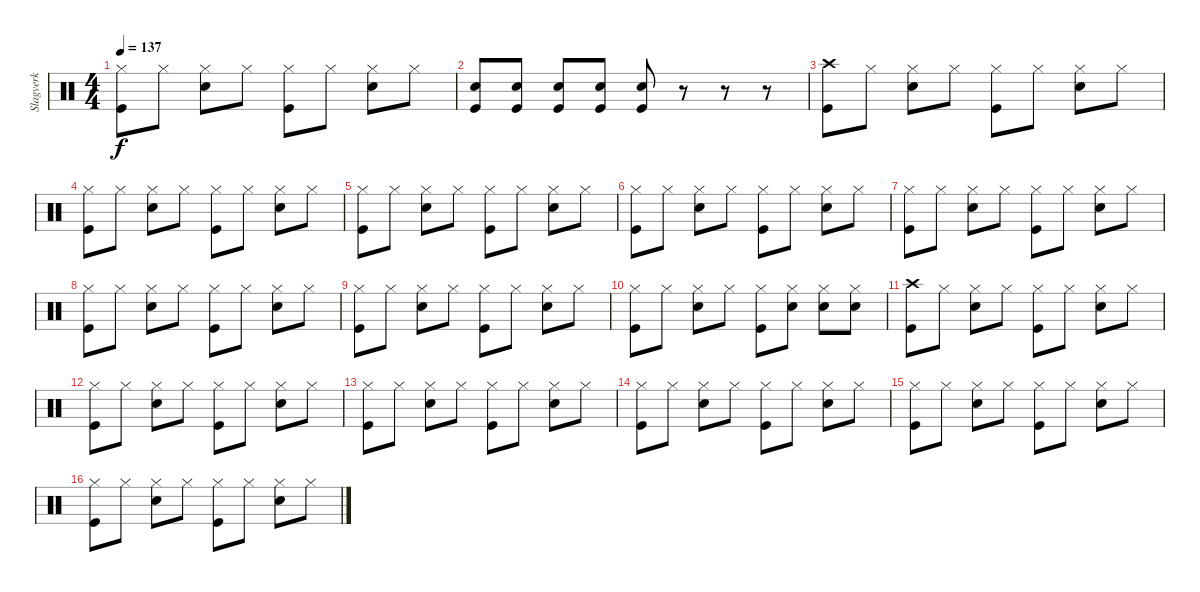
\track ("Slagverk" "Slagverk") {instrument percussion}
\staff {score}
\articulation defaults
\ts (4 4)
\tempo 137
\clef neutral
\ks c
("Hi-Hat (closed)" "Kick (hit)").8{dy f} "Hi-Hat (closed)".8 ("Hi-Hat (closed)" "Snare (hit) 2").8 "Hi-Hat (closed)".8 ("Hi-Hat (closed)" "Kick (hit)").8 "Hi-Hat (closed)".8 ("Hi-Hat (closed)" "Snare (hit) 2").8 "Hi-Hat (closed)".8 |
("Kick (hit)" "Snare (hit) 2").8 ("Kick (hit)" "Snare (hit) 2").8 ("Kick (hit)" "Snare (hit) 2").8 ("Kick (hit)" "Snare (hit) 2").8 ("Kick (hit)" "Snare (hit) 2").8 r.8 r.8 r.8 |
("Crash high (hit)" "Kick (hit)").8 "Hi-Hat (closed)".8 ("Hi-Hat (closed)" "Snare (hit) 2").8 "Hi-Hat (closed)".8 ("Hi-Hat (closed)" "Kick (hit)").8 "Hi-Hat (closed)".8 ("Hi-Hat (closed)" "Snare (hit) 2").8 "Hi-Hat (closed)".8 |
("Hi-Hat (closed)" "Kick (hit)").8 "Hi-Hat (closed)".8 ("Hi-Hat (closed)" "Snare (hit) 2").8 "Hi-Hat (closed)".8 ("Hi-Hat (closed)" "Kick (hit)").8 "Hi-Hat (closed)".8 ("Hi-Hat (closed)" "Snare (hit) 2").8 "Hi-Hat (closed)".8 |
("Hi-Hat (closed)" "Kick (hit)").8 "Hi-Hat (closed)".8 ("Hi-Hat (closed)" "Snare (hit) 2").8 "Hi-Hat (closed)".8 ("Hi-Hat (closed)" "Kick (hit)").8 "Hi-Hat (closed)".8 ("Hi-Hat (closed)" "Snare (hit) 2").8 "Hi-Hat (closed)".8 |
("Hi-Hat (closed)" "Kick (hit)").8 "Hi-Hat (closed)".8 ("Hi-Hat (closed)" "Snare (hit) 2").8 "Hi-Hat (closed)".8 ("Hi-Hat (closed)" "Kick (hit)").8 "Hi-Hat (closed)".8 ("Hi-Hat (closed)" "Snare (hit) 2").8 "Hi-Hat (closed)".8 |
("Hi-Hat (closed)" "Kick (hit)").8 "Hi-Hat (closed)".8 ("Hi-Hat (closed)" "Snare (hit) 2").8 "Hi-Hat (closed)".8 ("Hi-Hat (closed)" "Kick (hit)").8 "Hi-Hat (closed)".8 ("Hi-Hat (closed)" "Snare (hit) 2").8 "Hi-Hat (closed)".8 |
("Hi-Hat (closed)" "Kick (hit)").8 "Hi-Hat (closed)".8 ("Hi-Hat (closed)" "Snare (hit) 2").8 "Hi-Hat (closed)".8 ("Hi-Hat (closed)" "Kick (hit)").8 "Hi-Hat (closed)".8 ("Hi-Hat (closed)" "Snare (hit) 2").8 "Hi-Hat (closed)".8 |
("Hi-Hat (closed)" "Kick (hit)").8 "Hi-Hat (closed)".8 ("Hi-Hat (closed)" "Snare (hit) 2").8 "Hi-Hat (closed)".8 ("Hi-Hat (closed)" "Kick (hit)").8 "Hi-Hat (closed)".8 ("Hi-Hat (closed)" "Snare (hit) 2").8 "Hi-Hat (closed)".8 |
("Hi-Hat (closed)" "Kick (hit)").8 "Hi-Hat (closed)".8 ("Hi-Hat (closed)" "Snare (hit) 2").8 "Hi-Hat (closed)".8 ("Hi-Hat (closed)" "Kick (hit)").8 ("Hi-Hat (closed)" "Snare (hit) 2").8 ("Hi-Hat (closed)" "Snare (hit) 2").8 ("Hi-Hat (closed)" "Snare (hit) 2").8 |
("Crash high (hit)" "Kick (hit)").8 "Hi-Hat (closed)".8 ("Hi-Hat (closed)" "Snare (hit) 2").8 "Hi-Hat (closed)".8 ("Hi-Hat (closed)" "Kick (hit)").8 "Hi-Hat (closed)".8 ("Hi-Hat (closed)" "Snare (hit) 2").8 "Hi-Hat (closed)".8 |
("Hi-Hat (closed)" "Kick (hit)").8 "Hi-Hat (closed)".8 ("Hi-Hat (closed)" "Snare (hit) 2").8 "Hi-Hat (closed)".8 ("Hi-Hat (closed)" "Kick (hit)").8 "Hi-Hat (closed)".8 ("Hi-Hat (closed)" "Snare (hit) 2").8 "Hi-Hat (closed)".8 |
("Hi-Hat (closed)" "Kick (hit)").8 "Hi-Hat (closed)".8 ("Hi-Hat (closed)" "Snare (hit) 2").8 "Hi-Hat (closed)".8 ("Hi-Hat (closed)" "Kick (hit)").8 "Hi-Hat (closed)".8 ("Hi-Hat (closed)" "Snare (hit) 2").8 "Hi-Hat (closed)".8 |
("Hi-Hat (closed)" "Kick (hit)").8 "Hi-Hat (closed)".8 ("Hi-Hat (closed)" "Snare (hit) 2").8 "Hi-Hat (closed)".8 ("Hi-Hat (closed)" "Kick (hit)").8 "Hi-Hat (closed)".8 ("Hi-Hat (closed)" "Snare (hit) 2").8 "Hi-Hat (closed)".8 |
("Hi-Hat (closed)" "Kick (hit)").8 "Hi-Hat (closed)".8 ("Hi-Hat (closed)" "Snare (hit) 2").8 "Hi-Hat (closed)".8 ("Hi-Hat (closed)" "Kick (hit)").8 "Hi-Hat (closed)".8 ("Hi-Hat (closed)" "Snare (hit) 2").8 "Hi-Hat (closed)".8 |
("Hi-Hat (closed)" "Kick (hit)").8 "Hi-Hat (closed)".8 ("Hi-Hat (closed)" "Snare (hit) 2").8 "Hi-Hat (closed)".8 ("Hi-Hat (closed)" "Kick (hit)").8 "Hi-Hat (closed)".8 ("Hi-Hat (closed)" "Snare (hit) 2").8 "Hi-Hat (closed)".8
